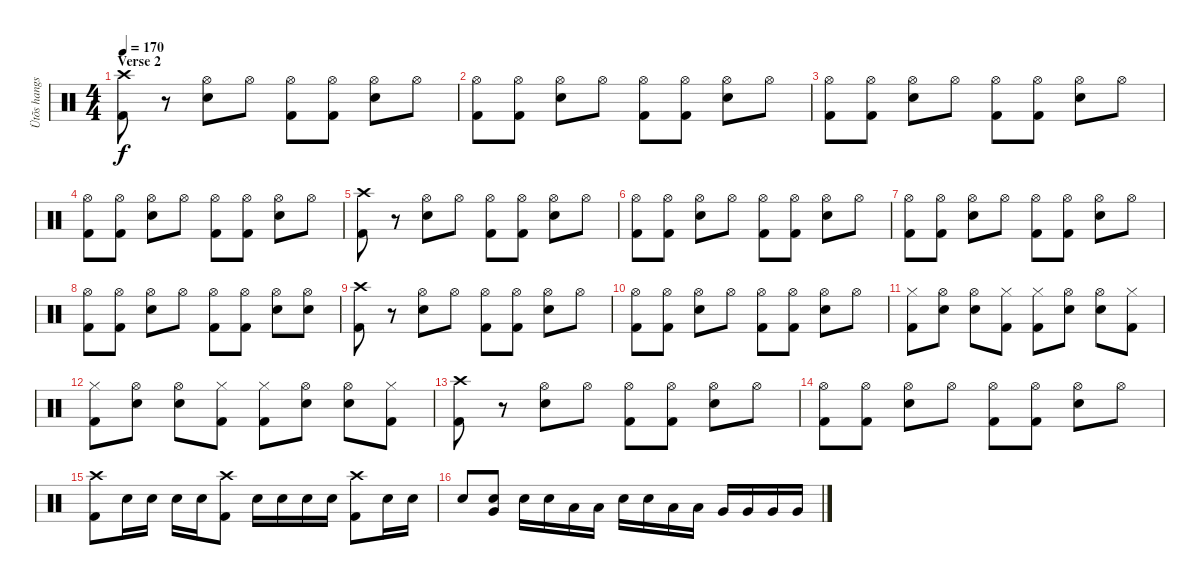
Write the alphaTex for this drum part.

\track ("Ütõs hangszer" "Ütõs hangs") {instrument percussion}
\staff {score}
\articulation defaults
\ts (4 4)
\section ("" "Verse 2")
\tempo 170
\clef neutral
\ks c
("Crash high (hit)" "Kick (hit) 2").8{dy f} r.8 ("Hi-Hat (open)" "Electric Snare (hit)").8 "Hi-Hat (open)".8 ("Hi-Hat (open)" "Kick (hit) 2").8 ("Hi-Hat (open)" "Kick (hit) 2").8 ("Hi-Hat (open)" "Electric Snare (hit)").8 "Hi-Hat (open)".8 |
("Hi-Hat (open)" "Kick (hit) 2").8 ("Hi-Hat (open)" "Kick (hit) 2").8 ("Hi-Hat (open)" "Electric Snare (hit)").8 "Hi-Hat (open)".8 ("Hi-Hat (open)" "Kick (hit) 2").8 ("Hi-Hat (open)" "Kick (hit) 2").8 ("Hi-Hat (open)" "Electric Snare (hit)").8 "Hi-Hat (open)".8 |
("Hi-Hat (open)" "Kick (hit) 2").8 ("Hi-Hat (open)" "Kick (hit) 2").8 ("Hi-Hat (open)" "Electric Snare (hit)").8 "Hi-Hat (open)".8 ("Hi-Hat (open)" "Kick (hit) 2").8 ("Hi-Hat (open)" "Kick (hit) 2").8 ("Hi-Hat (open)" "Electric Snare (hit)").8 "Hi-Hat (open)".8 |
("Hi-Hat (open)" "Kick (hit) 2").8 ("Hi-Hat (open)" "Kick (hit) 2").8 ("Hi-Hat (open)" "Electric Snare (hit)").8 "Hi-Hat (open)".8 ("Hi-Hat (open)" "Kick (hit) 2").8 ("Hi-Hat (open)" "Kick (hit) 2").8 ("Hi-Hat (open)" "Electric Snare (hit)").8 "Hi-Hat (open)".8 |
("Crash high (hit)" "Kick (hit) 2").8 r.8 ("Hi-Hat (open)" "Electric Snare (hit)").8 "Hi-Hat (open)".8 ("Hi-Hat (open)" "Kick (hit) 2").8 ("Hi-Hat (open)" "Kick (hit) 2").8 ("Hi-Hat (open)" "Electric Snare (hit)").8 "Hi-Hat (open)".8 |
("Hi-Hat (open)" "Kick (hit) 2").8 ("Hi-Hat (open)" "Kick (hit) 2").8 ("Hi-Hat (open)" "Electric Snare (hit)").8 "Hi-Hat (open)".8 ("Hi-Hat (open)" "Kick (hit) 2").8 ("Hi-Hat (open)" "Kick (hit) 2").8 ("Hi-Hat (open)" "Electric Snare (hit)").8 "Hi-Hat (open)".8 |
("Hi-Hat (open)" "Kick (hit) 2").8 ("Hi-Hat (open)" "Kick (hit) 2").8 ("Hi-Hat (open)" "Electric Snare (hit)").8 "Hi-Hat (open)".8 ("Hi-Hat (open)" "Kick (hit) 2").8 ("Hi-Hat (open)" "Kick (hit) 2").8 ("Hi-Hat (open)" "Electric Snare (hit)").8 "Hi-Hat (open)".8 |
("Hi-Hat (open)" "Kick (hit) 2").8 ("Hi-Hat (open)" "Kick (hit) 2").8 ("Hi-Hat (open)" "Electric Snare (hit)").8 "Hi-Hat (open)".8 ("Hi-Hat (open)" "Kick (hit) 2").8 ("Hi-Hat (open)" "Kick (hit) 2").8 ("Hi-Hat (open)" "Electric Snare (hit)").8 ("Hi-Hat (open)" "Electric Snare (hit)").8 |
("Crash high (hit)" "Kick (hit) 2").8 r.8 ("Hi-Hat (open)" "Electric Snare (hit)").8 "Hi-Hat (open)".8 ("Hi-Hat (open)" "Kick (hit) 2").8 ("Hi-Hat (open)" "Kick (hit) 2").8 ("Hi-Hat (open)" "Electric Snare (hit)").8 "Hi-Hat (open)".8 |
("Hi-Hat (open)" "Kick (hit) 2").8 ("Hi-Hat (open)" "Kick (hit) 2").8 ("Hi-Hat (open)" "Electric Snare (hit)").8 "Hi-Hat (open)".8 ("Hi-Hat (open)" "Kick (hit) 2").8 ("Hi-Hat (open)" "Kick (hit) 2").8 ("Hi-Hat (open)" "Electric Snare (hit)").8 "Hi-Hat (open)".8 |
("Hi-Hat (closed)" "Kick (hit) 2").8 ("Hi-Hat (open)" "Electric Snare (hit)").8 ("Hi-Hat (open)" "Electric Snare (hit)").8 ("Hi-Hat (closed)" "Kick (hit) 2").8 ("Hi-Hat (closed)" "Kick (hit) 2").8 ("Hi-Hat (open)" "Electric Snare (hit)").8 ("Hi-Hat (open)" "Electric Snare (hit)").8 ("Hi-Hat (closed)" "Kick (hit) 2").8 |
("Hi-Hat (closed)" "Kick (hit) 2").8 ("Hi-Hat (open)" "Electric Snare (hit)").8 ("Hi-Hat (open)" "Electric Snare (hit)").8 ("Hi-Hat (closed)" "Kick (hit) 2").8 ("Hi-Hat (closed)" "Kick (hit) 2").8 ("Hi-Hat (open)" "Electric Snare (hit)").8 ("Hi-Hat (open)" "Electric Snare (hit)").8 ("Hi-Hat (closed)" "Kick (hit) 2").8 |
("Crash high (hit)" "Kick (hit) 2").8 r.8 ("Hi-Hat (open)" "Electric Snare (hit)").8 "Hi-Hat (open)".8 ("Hi-Hat (open)" "Kick (hit) 2").8 ("Hi-Hat (open)" "Kick (hit) 2").8 ("Hi-Hat (open)" "Electric Snare (hit)").8 "Hi-Hat (open)".8 |
("Hi-Hat (open)" "Kick (hit) 2").8 ("Hi-Hat (open)" "Kick (hit) 2").8 ("Hi-Hat (open)" "Electric Snare (hit)").8 "Hi-Hat (open)".8 ("Hi-Hat (open)" "Kick (hit) 2").8 ("Hi-Hat (open)" "Kick (hit) 2").8 ("Hi-Hat (open)" "Electric Snare (hit)").8 "Hi-Hat (open)".8 |
("Crash high (hit)" "Kick (hit) 2").8 "Electric Snare (hit)".16 "Electric Snare (hit)".16 "Electric Snare (hit)".16 "Electric Snare (hit)".16 ("Crash high (hit)" "Kick (hit) 2").8 "Electric Snare (hit)".16 "Electric Snare (hit)".16 "Electric Snare (hit)".16 "Electric Snare (hit)".16 ("Crash high (hit)" "Kick (hit) 2").8 "Electric Snare (hit)".16 "Electric Snare (hit)".16 |
"Electric Snare (hit)".8 ("Very Low Tom (hit)" "Electric Snare (hit)").8 "Electric Snare (hit)".16 "Electric Snare (hit)".16 "Low Tom (hit)".16 "Low Tom (hit)".16 "Electric Snare (hit)".16 "Electric Snare (hit)".16 "Low Tom (hit)".16 "Low Tom (hit)".16 "Very Low Tom (hit)".16 "Very Low Tom (hit)".16 "Very Low Tom (hit)".16 "Very Low Tom (hit)".16
